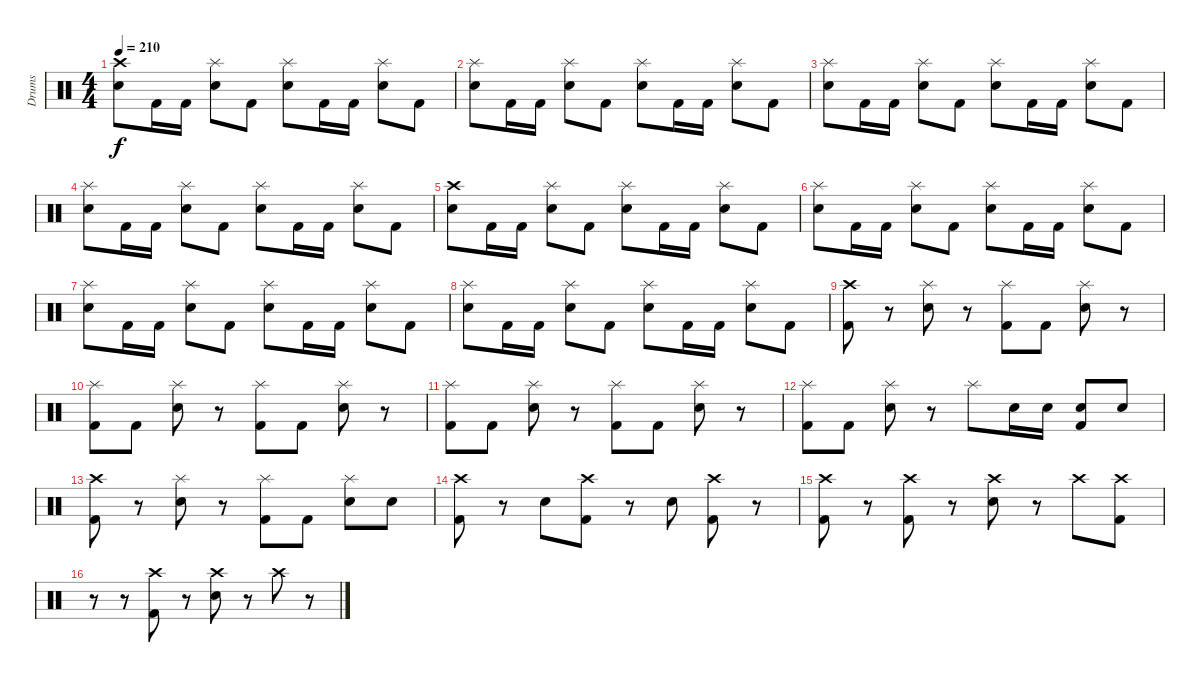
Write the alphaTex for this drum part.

\track ("Drums" "Drums") {instrument percussion}
\staff {score}
\articulation defaults
\ts (4 4)
\tempo 210
\clef neutral
\ks c
("Crash high (hit)" "Electric Snare (hit)").8{dy f} "Kick (hit) 2".16 "Kick (hit) 2".16 ("Splash (hit)" "Electric Snare (hit)").8 "Kick (hit) 2".8 ("Splash (hit)" "Electric Snare (hit)").8 "Kick (hit) 2".16 "Kick (hit) 2".16 ("Splash (hit)" "Electric Snare (hit)").8 "Kick (hit) 2".8 |
("Splash (hit)" "Electric Snare (hit)").8 "Kick (hit) 2".16 "Kick (hit) 2".16 ("Splash (hit)" "Electric Snare (hit)").8 "Kick (hit) 2".8 ("Splash (hit)" "Electric Snare (hit)").8 "Kick (hit) 2".16 "Kick (hit) 2".16 ("Splash (hit)" "Electric Snare (hit)").8 "Kick (hit) 2".8 |
("Splash (hit)" "Electric Snare (hit)").8 "Kick (hit) 2".16 "Kick (hit) 2".16 ("Splash (hit)" "Electric Snare (hit)").8 "Kick (hit) 2".8 ("Splash (hit)" "Electric Snare (hit)").8 "Kick (hit) 2".16 "Kick (hit) 2".16 ("Splash (hit)" "Electric Snare (hit)").8 "Kick (hit) 2".8 |
("Splash (hit)" "Electric Snare (hit)").8 "Kick (hit) 2".16 "Kick (hit) 2".16 ("Splash (hit)" "Electric Snare (hit)").8 "Kick (hit) 2".8 ("Splash (hit)" "Electric Snare (hit)").8 "Kick (hit) 2".16 "Kick (hit) 2".16 ("Splash (hit)" "Electric Snare (hit)").8 "Kick (hit) 2".8 |
("Crash high (hit)" "Electric Snare (hit)").8 "Kick (hit) 2".16 "Kick (hit) 2".16 ("Splash (hit)" "Electric Snare (hit)").8 "Kick (hit) 2".8 ("Splash (hit)" "Electric Snare (hit)").8 "Kick (hit) 2".16 "Kick (hit) 2".16 ("Splash (hit)" "Electric Snare (hit)").8 "Kick (hit) 2".8 |
("Splash (hit)" "Electric Snare (hit)").8 "Kick (hit) 2".16 "Kick (hit) 2".16 ("Splash (hit)" "Electric Snare (hit)").8 "Kick (hit) 2".8 ("Splash (hit)" "Electric Snare (hit)").8 "Kick (hit) 2".16 "Kick (hit) 2".16 ("Splash (hit)" "Electric Snare (hit)").8 "Kick (hit) 2".8 |
("Splash (hit)" "Electric Snare (hit)").8 "Kick (hit) 2".16 "Kick (hit) 2".16 ("Splash (hit)" "Electric Snare (hit)").8 "Kick (hit) 2".8 ("Splash (hit)" "Electric Snare (hit)").8 "Kick (hit) 2".16 "Kick (hit) 2".16 ("Splash (hit)" "Electric Snare (hit)").8 "Kick (hit) 2".8 |
("Splash (hit)" "Electric Snare (hit)").8 "Kick (hit) 2".16 "Kick (hit) 2".16 ("Splash (hit)" "Electric Snare (hit)").8 "Kick (hit) 2".8 ("Splash (hit)" "Electric Snare (hit)").8 "Kick (hit) 2".16 "Kick (hit) 2".16 ("Splash (hit)" "Electric Snare (hit)").8 "Kick (hit) 2".8 |
("Crash high (hit)" "Kick (hit) 2").8 r.8 ("Splash (hit)" "Electric Snare (hit)").8 r.8 ("Splash (hit)" "Kick (hit) 2").8 "Kick (hit) 2".8 ("Splash (hit)" "Electric Snare (hit)").8 r.8 |
("Splash (hit)" "Kick (hit) 2").8 "Kick (hit) 2".8 ("Splash (hit)" "Electric Snare (hit)").8 r.8 ("Splash (hit)" "Kick (hit) 2").8 "Kick (hit) 2".8 ("Splash (hit)" "Electric Snare (hit)").8 r.8 |
("Splash (hit)" "Kick (hit) 2").8 "Kick (hit) 2".8 ("Splash (hit)" "Electric Snare (hit)").8 r.8 ("Splash (hit)" "Kick (hit) 2").8 "Kick (hit) 2".8 ("Splash (hit)" "Electric Snare (hit)").8 r.8 |
("Splash (hit)" "Kick (hit) 2").8 "Kick (hit) 2".8 ("Splash (hit)" "Electric Snare (hit)").8 r.8 "Splash (hit)".8 "Electric Snare (hit)".16 "Electric Snare (hit)".16 ("Electric Snare (hit)" "Kick (hit) 2").8 "Electric Snare (hit)".8 |
("Crash high (hit)" "Kick (hit) 2").8 r.8 ("Splash (hit)" "Electric Snare (hit)").8 r.8 ("Splash (hit)" "Kick (hit) 2").8 "Kick (hit) 2".8 ("Splash (hit)" "Electric Snare (hit)").8 "Electric Snare (hit)".8 |
("Crash high (hit)" "Kick (hit) 2").8 r.8 "Electric Snare (hit)".8 ("Crash high (hit)" "Kick (hit) 2").8 r.8 "Electric Snare (hit)".8 ("Crash high (hit)" "Kick (hit) 2").8 r.8 |
("Crash high (hit)" "Kick (hit) 2").8 r.8 ("Crash high (hit)" "Kick (hit) 2").8 r.8 ("Crash high (hit)" "Electric Snare (hit)").8 r.8 "Crash high (hit)".8 ("Crash high (hit)" "Kick (hit) 2").8 |
r.8 r.8 ("Crash high (hit)" "Kick (hit) 2").8 r.8 ("Crash high (hit)" "Electric Snare (hit)").8 r.8 "Crash high (hit)".8 r.8
